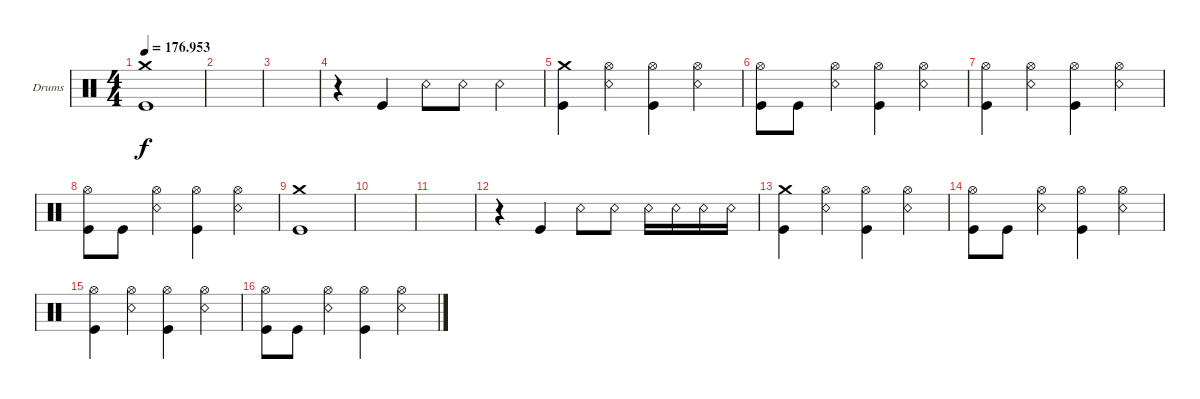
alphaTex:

\defaultSystemsLayout 4
\bracketExtendMode groupsimilarinstruments
\firstSystemTrackNameOrientation horizontal
\otherSystemsTrackNameOrientation horizontal
\track ("Christopher" "Drums") {instrument percussion}
\staff {score}
\articulation defaults
\ts (4 4)
\tempo
176.953
\accidentals auto
\clef neutral
\ottava regular
\simile none
\ks c
("Kick (hit)" "Crash medium (hit)").1{dy f} |
|
|
r.4 "Kick (hit)".4 "Snare (rim shot)".8 "Snare (rim shot)".8 "Snare (rim shot)".4 |
("Crash medium (hit)" "Kick (hit)").4 ("Snare (rim shot)" "Hi-Hat (open)").4 ("Hi-Hat (open)" "Kick (hit)").4 ("Snare (rim shot)" "Hi-Hat (open)").4 |
("Kick (hit)" "Hi-Hat (open)").8 "Kick (hit)".8 ("Snare (rim shot)" "Hi-Hat (open)").4 ("Kick (hit)" "Hi-Hat (open)").4 ("Snare (rim shot)" "Hi-Hat (open)").4 |
("Kick (hit)" "Hi-Hat (open)").4 ("Snare (rim shot)" "Hi-Hat (open)").4 ("Hi-Hat (open)" "Kick (hit)").4 ("Snare (rim shot)" "Hi-Hat (open)").4 |
("Kick (hit)" "Hi-Hat (open)").8 "Kick (hit)".8 ("Snare (rim shot)" "Hi-Hat (open)").4 ("Kick (hit)" "Hi-Hat (open)").4 ("Snare (rim shot)" "Hi-Hat (open)").4 |
("Kick (hit)" "Crash medium (hit)").1 |
|
|
r.4 "Kick (hit)".4 "Snare (rim shot)".8 "Snare (rim shot)".8 "Snare (rim shot)".16 "Snare (rim shot)".16 "Snare (rim shot)".16 "Snare (rim shot)".16 |
("Crash medium (hit)" "Kick (hit)").4 ("Snare (rim shot)" "Hi-Hat (open)").4 ("Hi-Hat (open)" "Kick (hit)").4 ("Snare (rim shot)" "Hi-Hat (open)").4 |
("Kick (hit)" "Hi-Hat (open)").8 "Kick (hit)".8 ("Snare (rim shot)" "Hi-Hat (open)").4 ("Kick (hit)" "Hi-Hat (open)").4 ("Snare (rim shot)" "Hi-Hat (open)").4 |
("Kick (hit)" "Hi-Hat (open)").4 ("Snare (rim shot)" "Hi-Hat (open)").4 ("Hi-Hat (open)" "Kick (hit)").4 ("Snare (rim shot)" "Hi-Hat (open)").4 |
("Kick (hit)" "Hi-Hat (open)").8 "Kick (hit)".8 ("Snare (rim shot)" "Hi-Hat (open)").4 ("Kick (hit)" "Hi-Hat (open)").4 ("Snare (rim shot)" "Hi-Hat (open)").4
